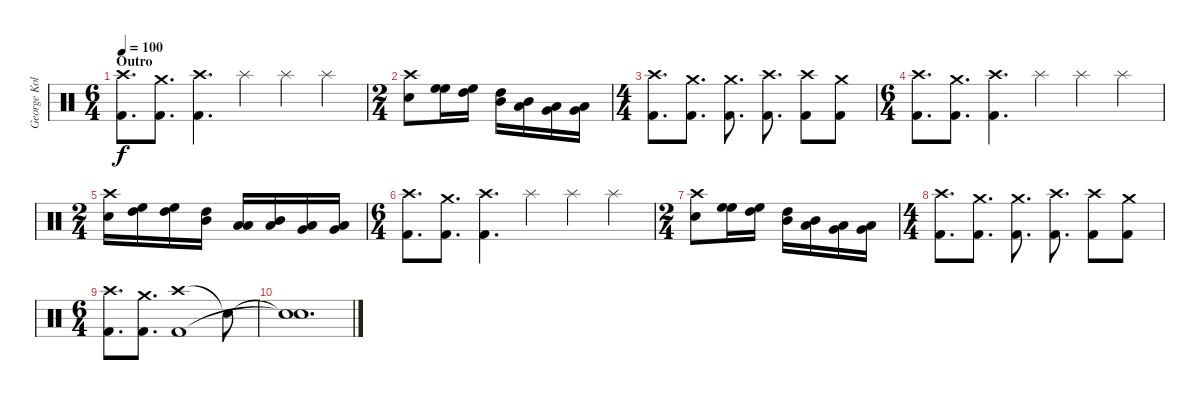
\track ("George Kollias" "George Kol") {instrument percussion}
\staff {score}
\articulation defaults
\ts (6 4)
\section ("" "Outro")
\tempo 100
\clef neutral
\ks c
("Crash high (hit)" "Kick (hit) 2").8{d dy f} ("Crash medium (hit)" "Kick (hit) 2").8{d} ("Crash high (hit)" "Kick (hit) 2").4{d} "Splash (hit)".4 "Splash (hit)".4 "Splash (hit)".4 |
\ts (2 4)
("Crash high (hit)" "Electric Snare (hit)").8 ("High Floor Tom (hit)" "High Floor Tom (hit)").16 ("High Tom (hit)" "High Floor Tom (hit)").16 ("Mid Tom (hit)" "High Tom (hit)").16 ("Low Tom (hit)" "Mid Tom (hit)").16 ("Very Low Tom (hit)" "Low Tom (hit)").16 ("Low Floor Tom (hit)" "Very Low Tom (hit)").16 |
\ts (4 4)
("Crash high (hit)" "Kick (hit) 2").8{d} ("Crash medium (hit)" "Kick (hit) 2").8{d} ("Crash medium (hit)" "Kick (hit) 2").8{d} ("Crash high (hit)" "Kick (hit) 2").8{d} ("Crash high (hit)" "Kick (hit) 2").8 ("Crash medium (hit)" "Kick (hit) 2").8 |
\ts (6 4)
("Crash high (hit)" "Kick (hit) 2").8{d} ("Crash medium (hit)" "Kick (hit) 2").8{d} ("Crash high (hit)" "Kick (hit) 2").4{d} "Splash (hit)".4 "Splash (hit)".4 "Splash (hit)".4 |
\ts (2 4)
("Crash high (hit)" "Electric Snare (hit)").16 ("High Tom (hit)" "High Floor Tom (hit)").16 ("High Tom (hit)" "High Floor Tom (hit)").16 ("Mid Tom (hit)" "High Tom (hit)").16 ("Low Tom (hit)" "Low Tom (hit)").16 ("Low Tom (hit)" "Mid Tom (hit)").16 ("Very Low Tom (hit)" "Low Tom (hit)").16 ("Very Low Tom (hit)" "Low Floor Tom (hit)").16 |
\ts (6 4)
("Crash high (hit)" "Kick (hit) 2").8{d} ("Crash medium (hit)" "Kick (hit) 2").8{d} ("Crash high (hit)" "Kick (hit) 2").4{d} "Splash (hit)".4 "Splash (hit)".4 "Splash (hit)".4 |
\ts (2 4)
("Crash high (hit)" "Electric Snare (hit)").8 ("High Floor Tom (hit)" "High Floor Tom (hit)").16 ("High Tom (hit)" "High Floor Tom (hit)").16 ("Mid Tom (hit)" "High Tom (hit)").16 ("Low Tom (hit)" "Mid Tom (hit)").16 ("Very Low Tom (hit)" "Low Tom (hit)").16 ("Low Floor Tom (hit)" "Very Low Tom (hit)").16 |
\ts (4 4)
("Crash high (hit)" "Kick (hit) 2").8{d} ("Crash medium (hit)" "Kick (hit) 2").8{d} ("Crash medium (hit)" "Kick (hit) 2").8{d} ("Crash high (hit)" "Kick (hit) 2").8{d} ("Crash high (hit)" "Kick (hit) 2").8 ("Crash medium (hit)" "Kick (hit) 2").8 |
\ts (6 4)
("Crash high (hit)" "Kick (hit) 2").8{d} ("Crash medium (hit)" "Kick (hit) 2").8{d} ("Crash high (hit)" "Kick (hit) 2").1 "Snare (hit)"{t}.8 |
("Snare (hit)"{t} "Snare (hit)"{t}).1{d}
